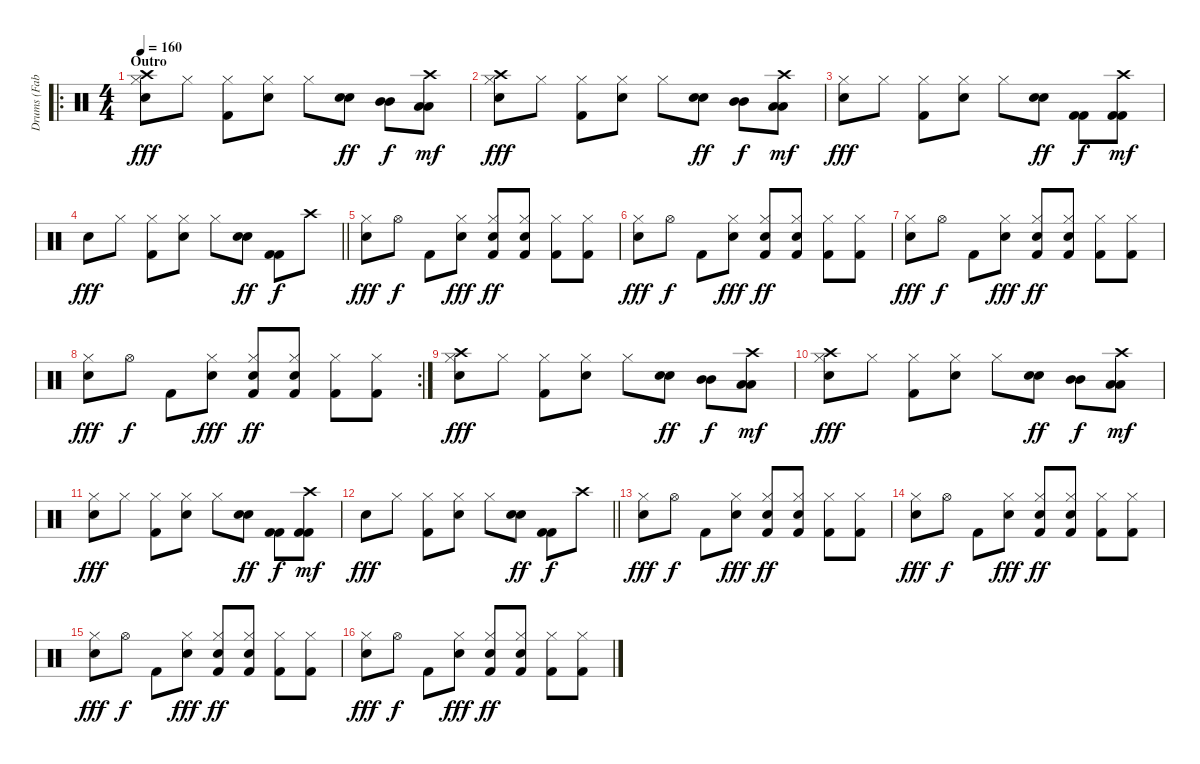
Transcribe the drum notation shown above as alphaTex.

\track ("Drums (Fabrizio Moretti)" "Drums (Fab") {instrument percussion}
\staff {score}
\articulation defaults
\ro
\ts (4 4)
\section ("" "Outro")
\tempo 160
\clef neutral
\ks c
("Crash high (hit)" "Electric Snare (hit)" "Hi-Hat (closed)").8{dy fff} "Hi-Hat (closed)".8 ("Kick (hit) 2" "Hi-Hat (closed)").8 ("Electric Snare (hit)" "Hi-Hat (closed)").8 "Hi-Hat (closed)".8 ("Electric Snare (hit)" "Electric Snare (hit)").8{dy ff} ("Mid Tom (hit)" "Mid Tom (hit)").8{dy f} ("Crash high (hit)" "Low Tom (hit)" "Low Tom (hit)").8{dy mf} |
("Crash high (hit)" "Electric Snare (hit)" "Hi-Hat (closed)").8{dy fff} "Hi-Hat (closed)".8 ("Kick (hit) 2" "Hi-Hat (closed)").8 ("Electric Snare (hit)" "Hi-Hat (closed)").8 "Hi-Hat (closed)".8 ("Electric Snare (hit)" "Electric Snare (hit)").8{dy ff} ("Mid Tom (hit)" "Mid Tom (hit)").8{dy f} ("Crash high (hit)" "Low Tom (hit)" "Low Tom (hit)").8{dy mf} |
("Electric Snare (hit)" "Hi-Hat (closed)").8{dy fff} "Hi-Hat (closed)".8 ("Kick (hit) 2" "Hi-Hat (closed)").8 ("Electric Snare (hit)" "Hi-Hat (closed)").8 "Hi-Hat (closed)".8 ("Electric Snare (hit)" "Electric Snare (hit)").8{dy ff} ("Kick (hit) 2" "Kick (hit) 2").8{dy f} ("Crash high (hit)" "Kick (hit) 2" "Kick (hit) 2").8{dy mf} |
\barLineRight lightlight "Electric Snare (hit)".8{dy fff} "Hi-Hat (closed)".8
("Kick (hit) 2" "Hi-Hat (closed)").8 ("Electric Snare (hit)" "Hi-Hat (closed)").8 "Hi-Hat (closed)".8 ("Electric Snare (hit)" "Electric Snare (hit)").8{dy ff} ("Kick (hit) 2" "Kick (hit) 2").8{dy f} "Crash high (hit)".8 |
("Hi-Hat (closed)" "Electric Snare (hit)").8{dy fff} "Hi-Hat (open)".8{dy f} "Kick (hit) 2".8 ("Hi-Hat (closed)" "Electric Snare (hit)").8{dy fff} ("Kick (hit) 2" "Hi-Hat (closed)" "Electric Snare (hit)").8{dy ff} ("Kick (hit) 2" "Hi-Hat (closed)" "Electric Snare (hit)").8 ("Kick (hit) 2" "Hi-Hat (closed)").8 ("Kick (hit) 2" "Hi-Hat (closed)").8 |
("Hi-Hat (closed)" "Electric Snare (hit)").8{dy fff} "Hi-Hat (open)".8{dy f} "Kick (hit) 2".8 ("Hi-Hat (closed)" "Electric Snare (hit)").8{dy fff} ("Kick (hit) 2" "Hi-Hat (closed)" "Electric Snare (hit)").8{dy ff} ("Kick (hit) 2" "Hi-Hat (closed)" "Electric Snare (hit)").8 ("Kick (hit) 2" "Hi-Hat (closed)").8 ("Kick (hit) 2" "Hi-Hat (closed)").8 |
("Hi-Hat (closed)" "Electric Snare (hit)").8{dy fff} "Hi-Hat (open)".8{dy f} "Kick (hit) 2".8 ("Hi-Hat (closed)" "Electric Snare (hit)").8{dy fff} ("Kick (hit) 2" "Hi-Hat (closed)" "Electric Snare (hit)").8{dy ff} ("Kick (hit) 2" "Hi-Hat (closed)" "Electric Snare (hit)").8 ("Kick (hit) 2" "Hi-Hat (closed)").8 ("Kick (hit) 2" "Hi-Hat (closed)").8 |
\rc 2
("Hi-Hat (closed)" "Electric Snare (hit)").8{dy fff} "Hi-Hat (open)".8{dy f} "Kick (hit) 2".8 ("Hi-Hat (closed)" "Electric Snare (hit)").8{dy fff} ("Kick (hit) 2" "Hi-Hat (closed)" "Electric Snare (hit)").8{dy ff} ("Kick (hit) 2" "Hi-Hat (closed)" "Electric Snare (hit)").8 ("Kick (hit) 2" "Hi-Hat (closed)").8 ("Kick (hit) 2" "Hi-Hat (closed)").8 |
("Crash high (hit)" "Electric Snare (hit)" "Hi-Hat (closed)").8{dy fff} "Hi-Hat (closed)".8 ("Kick (hit) 2" "Hi-Hat (closed)").8 ("Electric Snare (hit)" "Hi-Hat (closed)").8 "Hi-Hat (closed)".8 ("Electric Snare (hit)" "Electric Snare (hit)").8{dy ff} ("Mid Tom (hit)" "Mid Tom (hit)").8{dy f} ("Crash high (hit)" "Low Tom (hit)" "Low Tom (hit)").8{dy mf} |
("Crash high (hit)" "Electric Snare (hit)" "Hi-Hat (closed)").8{dy fff} "Hi-Hat (closed)".8 ("Kick (hit) 2" "Hi-Hat (closed)").8 ("Electric Snare (hit)" "Hi-Hat (closed)").8 "Hi-Hat (closed)".8 ("Electric Snare (hit)" "Electric Snare (hit)").8{dy ff} ("Mid Tom (hit)" "Mid Tom (hit)").8{dy f} ("Crash high (hit)" "Low Tom (hit)" "Low Tom (hit)").8{dy mf} |
("Electric Snare (hit)" "Hi-Hat (closed)").8{dy fff} "Hi-Hat (closed)".8 ("Kick (hit) 2" "Hi-Hat (closed)").8 ("Electric Snare (hit)" "Hi-Hat (closed)").8 "Hi-Hat (closed)".8 ("Electric Snare (hit)" "Electric Snare (hit)").8{dy ff} ("Kick (hit) 2" "Kick (hit) 2").8{dy f} ("Crash high (hit)" "Kick (hit) 2" "Kick (hit) 2").8{dy mf} |
\barLineRight lightlight "Electric Snare (hit)".8{dy fff} "Hi-Hat (closed)".8
("Kick (hit) 2" "Hi-Hat (closed)").8 ("Electric Snare (hit)" "Hi-Hat (closed)").8 "Hi-Hat (closed)".8 ("Electric Snare (hit)" "Electric Snare (hit)").8{dy ff} ("Kick (hit) 2" "Kick (hit) 2").8{dy f} "Crash high (hit)".8 |
("Hi-Hat (closed)" "Electric Snare (hit)").8{dy fff} "Hi-Hat (open)".8{dy f} "Kick (hit) 2".8 ("Hi-Hat (closed)" "Electric Snare (hit)").8{dy fff} ("Kick (hit) 2" "Hi-Hat (closed)" "Electric Snare (hit)").8{dy ff} ("Kick (hit) 2" "Hi-Hat (closed)" "Electric Snare (hit)").8 ("Kick (hit) 2" "Hi-Hat (closed)").8 ("Kick (hit) 2" "Hi-Hat (closed)").8 |
("Hi-Hat (closed)" "Electric Snare (hit)").8{dy fff} "Hi-Hat (open)".8{dy f} "Kick (hit) 2".8 ("Hi-Hat (closed)" "Electric Snare (hit)").8{dy fff} ("Kick (hit) 2" "Hi-Hat (closed)" "Electric Snare (hit)").8{dy ff} ("Kick (hit) 2" "Hi-Hat (closed)" "Electric Snare (hit)").8 ("Kick (hit) 2" "Hi-Hat (closed)").8 ("Kick (hit) 2" "Hi-Hat (closed)").8 |
("Hi-Hat (closed)" "Electric Snare (hit)").8{dy fff} "Hi-Hat (open)".8{dy f} "Kick (hit) 2".8 ("Hi-Hat (closed)" "Electric Snare (hit)").8{dy fff} ("Kick (hit) 2" "Hi-Hat (closed)" "Electric Snare (hit)").8{dy ff} ("Kick (hit) 2" "Hi-Hat (closed)" "Electric Snare (hit)").8 ("Kick (hit) 2" "Hi-Hat (closed)").8 ("Kick (hit) 2" "Hi-Hat (closed)").8 |
("Hi-Hat (closed)" "Electric Snare (hit)").8{dy fff} "Hi-Hat (open)".8{dy f} "Kick (hit) 2".8 ("Hi-Hat (closed)" "Electric Snare (hit)").8{dy fff} ("Kick (hit) 2" "Hi-Hat (closed)" "Electric Snare (hit)").8{dy ff} ("Kick (hit) 2" "Hi-Hat (closed)" "Electric Snare (hit)").8 ("Kick (hit) 2" "Hi-Hat (closed)").8 ("Kick (hit) 2" "Hi-Hat (closed)").8
